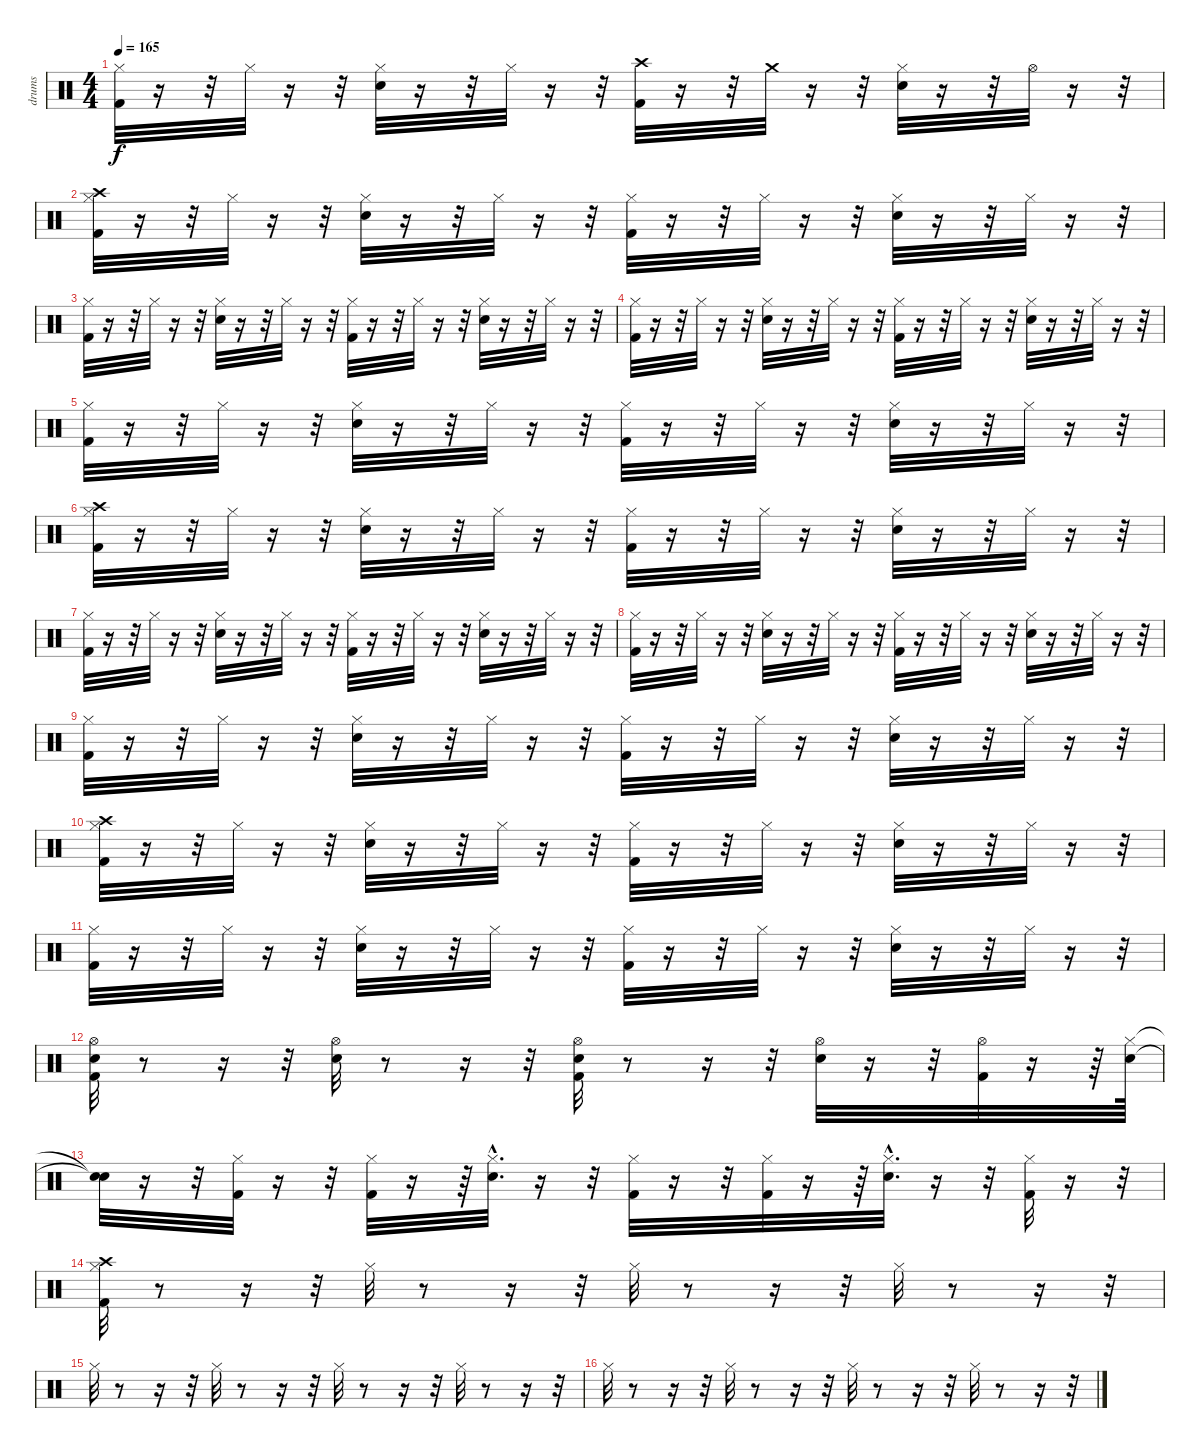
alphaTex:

\track ("drums" "drums") {instrument percussion}
\staff {score}
\articulation defaults
\ts (4 4)
\tempo 165
\clef neutral
\ks c
("Hi-Hat (closed)" "Kick (hit) 2").32{dy f} r.16 r.32 "Hi-Hat (closed)".32 r.16 r.32 ("Hi-Hat (closed)" "Electric Snare (hit)").32 r.16 r.32 "Hi-Hat (closed)".32 r.16 r.32 ("Crash high (hit)" "Kick (hit) 2").32 r.16 r.32 "Crash medium (hit)".32 r.16 r.32 ("Hi-Hat (closed)" "Electric Snare (hit)").32 r.16 r.32 "Hi-Hat (open)".32 r.16 r.32 |
("Crash high (hit)" "Hi-Hat (closed)" "Kick (hit) 2").32 r.16 r.32 "Hi-Hat (closed)".32 r.16 r.32 ("Hi-Hat (closed)" "Electric Snare (hit)").32 r.16 r.32 "Hi-Hat (closed)".32 r.16 r.32 ("Hi-Hat (closed)" "Kick (hit) 2").32 r.16 r.32 "Hi-Hat (closed)".32 r.16 r.32 ("Hi-Hat (closed)" "Electric Snare (hit)").32 r.16 r.32 "Hi-Hat (closed)".32 r.16 r.32 |
("Hi-Hat (closed)" "Kick (hit) 2").32 r.16 r.32 "Hi-Hat (closed)".32 r.16 r.32 ("Hi-Hat (closed)" "Electric Snare (hit)").32 r.16 r.32 "Hi-Hat (closed)".32 r.16 r.32 ("Hi-Hat (closed)" "Kick (hit) 2").32 r.16 r.32 "Hi-Hat (closed)".32 r.16 r.32 ("Hi-Hat (closed)" "Electric Snare (hit)").32 r.16 r.32 "Hi-Hat (closed)".32 r.16 r.32 |
("Hi-Hat (closed)" "Kick (hit) 2").32 r.16 r.32 "Hi-Hat (closed)".32 r.16 r.32 ("Hi-Hat (closed)" "Electric Snare (hit)").32 r.16 r.32 "Hi-Hat (closed)".32 r.16 r.32 ("Hi-Hat (closed)" "Kick (hit) 2").32 r.16 r.32 "Hi-Hat (closed)".32 r.16 r.32 ("Hi-Hat (closed)" "Electric Snare (hit)").32 r.16 r.32 "Hi-Hat (closed)".32 r.16 r.32 |
("Hi-Hat (closed)" "Kick (hit) 2").32 r.16 r.32 "Hi-Hat (closed)".32 r.16 r.32 ("Hi-Hat (closed)" "Electric Snare (hit)").32 r.16 r.32 "Hi-Hat (closed)".32 r.16 r.32 ("Hi-Hat (closed)" "Kick (hit) 2").32 r.16 r.32 "Hi-Hat (closed)".32 r.16 r.32 ("Hi-Hat (closed)" "Electric Snare (hit)").32 r.16 r.32 "Hi-Hat (closed)".32 r.16 r.32 |
("Crash high (hit)" "Hi-Hat (closed)" "Kick (hit) 2").32 r.16 r.32 "Hi-Hat (closed)".32 r.16 r.32 ("Hi-Hat (closed)" "Electric Snare (hit)").32 r.16 r.32 "Hi-Hat (closed)".32 r.16 r.32 ("Hi-Hat (closed)" "Kick (hit) 2").32 r.16 r.32 "Hi-Hat (closed)".32 r.16 r.32 ("Hi-Hat (closed)" "Electric Snare (hit)").32 r.16 r.32 "Hi-Hat (closed)".32 r.16 r.32 |
("Hi-Hat (closed)" "Kick (hit) 2").32 r.16 r.32 "Hi-Hat (closed)".32 r.16 r.32 ("Hi-Hat (closed)" "Electric Snare (hit)").32 r.16 r.32 "Hi-Hat (closed)".32 r.16 r.32 ("Hi-Hat (closed)" "Kick (hit) 2").32 r.16 r.32 "Hi-Hat (closed)".32 r.16 r.32 ("Hi-Hat (closed)" "Electric Snare (hit)").32 r.16 r.32 "Hi-Hat (closed)".32 r.16 r.32 |
("Hi-Hat (closed)" "Kick (hit) 2").32 r.16 r.32 "Hi-Hat (closed)".32 r.16 r.32 ("Hi-Hat (closed)" "Electric Snare (hit)").32 r.16 r.32 "Hi-Hat (closed)".32 r.16 r.32 ("Hi-Hat (closed)" "Kick (hit) 2").32 r.16 r.32 "Hi-Hat (closed)".32 r.16 r.32 ("Hi-Hat (closed)" "Electric Snare (hit)").32 r.16 r.32 "Hi-Hat (closed)".32 r.16 r.32 |
("Hi-Hat (closed)" "Kick (hit) 2").32 r.16 r.32 "Hi-Hat (closed)".32 r.16 r.32 ("Hi-Hat (closed)" "Electric Snare (hit)").32 r.16 r.32 "Hi-Hat (closed)".32 r.16 r.32 ("Hi-Hat (closed)" "Kick (hit) 2").32 r.16 r.32 "Hi-Hat (closed)".32 r.16 r.32 ("Hi-Hat (closed)" "Electric Snare (hit)").32 r.16 r.32 "Hi-Hat (closed)".32 r.16 r.32 |
("Crash high (hit)" "Hi-Hat (closed)" "Kick (hit) 2").32 r.16 r.32 "Hi-Hat (closed)".32 r.16 r.32 ("Hi-Hat (closed)" "Electric Snare (hit)").32 r.16 r.32 "Hi-Hat (closed)".32 r.16 r.32 ("Hi-Hat (closed)" "Kick (hit) 2").32 r.16 r.32 "Hi-Hat (closed)".32 r.16 r.32 ("Hi-Hat (closed)" "Electric Snare (hit)").32 r.16 r.32 "Hi-Hat (closed)".32 r.16 r.32 |
("Hi-Hat (closed)" "Kick (hit) 2").32 r.16 r.32 "Hi-Hat (closed)".32 r.16 r.32 ("Hi-Hat (closed)" "Electric Snare (hit)").32 r.16 r.32 "Hi-Hat (closed)".32 r.16 r.32 ("Hi-Hat (closed)" "Kick (hit) 2").32 r.16 r.32 "Hi-Hat (closed)".32 r.16 r.32 ("Hi-Hat (closed)" "Electric Snare (hit)").32 r.16 r.32 "Hi-Hat (closed)".32 r.16 r.32 |
("Electric Snare (hit)" "Hi-Hat (open)" "Kick (hit) 2").32 r.8 r.16 r.32 ("Electric Snare (hit)" "Hi-Hat (open)").32 r.8 r.16 r.32 ("Electric Snare (hit)" "Hi-Hat (open)" "Kick (hit) 2").32 r.8 r.16 r.32 ("Hi-Hat (open)" "Electric Snare (hit)").32 r.16 r.32 ("Kick (hit) 2" "Hi-Hat (open)").32 r.16 r.64 ("Hi-Hat (closed)" "Electric Snare (hit)").64 |
("Snare (hit)"{t} "Snare (hit)"{t}).32 r.16 r.32 ("Kick (hit) 2" "Hi-Hat (closed)").32 r.16 r.32 ("Hi-Hat (closed)" "Kick (hit) 2").32 r.16 r.64 ("Electric Snare (hit)"{hac} "Hi-Hat (closed)"{hac}).32{d} r.16 r.32 ("Hi-Hat (closed)" "Kick (hit) 2").32 r.16 r.32 ("Hi-Hat (closed)" "Kick (hit) 2").32 r.16 r.64 ("Hi-Hat (closed)"{hac} "Electric Snare (hit)"{hac}).32{d} r.16 r.32 ("Kick (hit) 2" "Hi-Hat (closed)").32 r.16 r.32 |
("Crash high (hit)" "Hi-Hat (closed)" "Kick (hit) 2").32 r.8 r.16 r.32 "Hi-Hat (closed)".32 r.8 r.16 r.32 "Hi-Hat (closed)".32 r.8 r.16 r.32 "Hi-Hat (closed)".32 r.8 r.16 r.32 |
"Hi-Hat (closed)".32 r.8 r.16 r.32 "Hi-Hat (closed)".32 r.8 r.16 r.32 "Hi-Hat (closed)".32 r.8 r.16 r.32 "Hi-Hat (closed)".32 r.8 r.16 r.32 |
"Hi-Hat (closed)".32 r.8 r.16 r.32 "Hi-Hat (closed)".32 r.8 r.16 r.32 "Hi-Hat (closed)".32 r.8 r.16 r.32 "Hi-Hat (closed)".32 r.8 r.16 r.32
